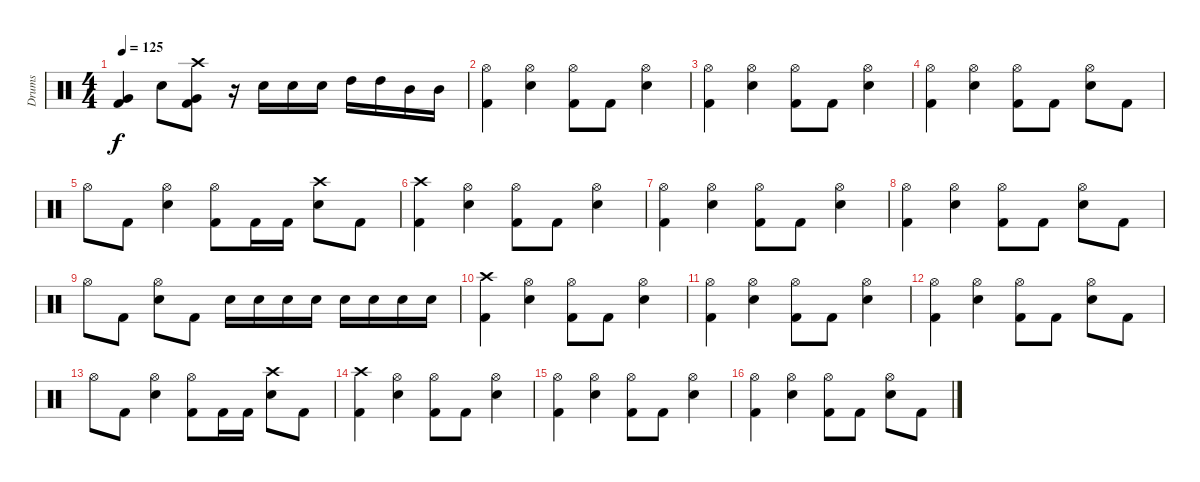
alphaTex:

\track ("Drums" "Drums") {instrument percussion}
\staff {score}
\articulation defaults
\ts (4 4)
\tempo 125
\clef neutral
\ks c
("Very Low Tom (hit)" "Kick (hit) 2").4{dy f} "Electric Snare (hit)".8 ("Crash high (hit)" "Very Low Tom (hit)" "Kick (hit) 2").8 r.16 "Electric Snare (hit)".16 "Electric Snare (hit)".16 "Electric Snare (hit)".16 "High Tom (hit)".16 "High Tom (hit)".16 "Mid Tom (hit)".16 "Mid Tom (hit)".16 |
("Hi-Hat (open)" "Kick (hit) 2").4 ("Hi-Hat (open)" "Electric Snare (hit)").4 ("Hi-Hat (open)" "Kick (hit) 2").8 "Kick (hit) 2".8 ("Hi-Hat (open)" "Electric Snare (hit)").4 |
("Hi-Hat (open)" "Kick (hit) 2").4 ("Hi-Hat (open)" "Electric Snare (hit)").4 ("Hi-Hat (open)" "Kick (hit) 2").8 "Kick (hit) 2".8 ("Hi-Hat (open)" "Electric Snare (hit)").4 |
("Hi-Hat (open)" "Kick (hit) 2").4 ("Hi-Hat (open)" "Electric Snare (hit)").4 ("Hi-Hat (open)" "Kick (hit) 2").8 "Kick (hit) 2".8 ("Hi-Hat (open)" "Electric Snare (hit)").8 "Kick (hit) 2".8 |
"Hi-Hat (open)".8 "Kick (hit) 2".8 ("Hi-Hat (open)" "Electric Snare (hit)").4 ("Hi-Hat (open)" "Kick (hit) 2").8 "Kick (hit) 2".16 "Kick (hit) 2".16 ("Crash high (hit)" "Electric Snare (hit)").8 "Kick (hit) 2".8 |
("Crash high (hit)" "Kick (hit) 2").4 ("Hi-Hat (open)" "Electric Snare (hit)").4 ("Hi-Hat (open)" "Kick (hit) 2").8 "Kick (hit) 2".8 ("Hi-Hat (open)" "Electric Snare (hit)").4 |
("Hi-Hat (open)" "Kick (hit) 2").4 ("Hi-Hat (open)" "Electric Snare (hit)").4 ("Hi-Hat (open)" "Kick (hit) 2").8 "Kick (hit) 2".8 ("Hi-Hat (open)" "Electric Snare (hit)").4 |
("Hi-Hat (open)" "Kick (hit) 2").4 ("Hi-Hat (open)" "Electric Snare (hit)").4 ("Hi-Hat (open)" "Kick (hit) 2").8 "Kick (hit) 2".8 ("Hi-Hat (open)" "Electric Snare (hit)").8 "Kick (hit) 2".8 |
"Hi-Hat (open)".8 "Kick (hit) 2".8 ("Hi-Hat (open)" "Electric Snare (hit)").8 "Kick (hit) 2".8 "Electric Snare (hit)".16 "Electric Snare (hit)".16 "Electric Snare (hit)".16 "Electric Snare (hit)".16 "Electric Snare (hit)".16 "Electric Snare (hit)".16 "Electric Snare (hit)".16 "Electric Snare (hit)".16 |
("Crash high (hit)" "Kick (hit) 2").4 ("Hi-Hat (open)" "Electric Snare (hit)").4 ("Hi-Hat (open)" "Kick (hit) 2").8 "Kick (hit) 2".8 ("Hi-Hat (open)" "Electric Snare (hit)").4 |
("Hi-Hat (open)" "Kick (hit) 2").4 ("Hi-Hat (open)" "Electric Snare (hit)").4 ("Hi-Hat (open)" "Kick (hit) 2").8 "Kick (hit) 2".8 ("Hi-Hat (open)" "Electric Snare (hit)").4 |
("Hi-Hat (open)" "Kick (hit) 2").4 ("Hi-Hat (open)" "Electric Snare (hit)").4 ("Hi-Hat (open)" "Kick (hit) 2").8 "Kick (hit) 2".8 ("Hi-Hat (open)" "Electric Snare (hit)").8 "Kick (hit) 2".8 |
"Hi-Hat (open)".8 "Kick (hit) 2".8 ("Hi-Hat (open)" "Electric Snare (hit)").4 ("Hi-Hat (open)" "Kick (hit) 2").8 "Kick (hit) 2".16 "Kick (hit) 2".16 ("Crash high (hit)" "Electric Snare (hit)").8 "Kick (hit) 2".8 |
("Crash high (hit)" "Kick (hit) 2").4 ("Hi-Hat (open)" "Electric Snare (hit)").4 ("Hi-Hat (open)" "Kick (hit) 2").8 "Kick (hit) 2".8 ("Hi-Hat (open)" "Electric Snare (hit)").4 |
("Hi-Hat (open)" "Kick (hit) 2").4 ("Hi-Hat (open)" "Electric Snare (hit)").4 ("Hi-Hat (open)" "Kick (hit) 2").8 "Kick (hit) 2".8 ("Hi-Hat (open)" "Electric Snare (hit)").4 |
("Hi-Hat (open)" "Kick (hit) 2").4 ("Hi-Hat (open)" "Electric Snare (hit)").4 ("Hi-Hat (open)" "Kick (hit) 2").8 "Kick (hit) 2".8 ("Hi-Hat (open)" "Electric Snare (hit)").8 "Kick (hit) 2".8
